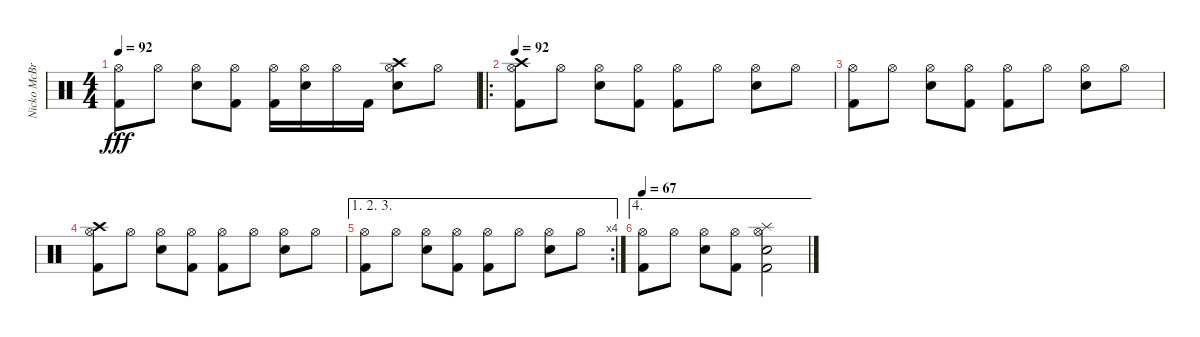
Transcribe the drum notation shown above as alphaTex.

\track ("Nicko McBrain" "Nicko McBr") {instrument percussion}
\staff {score}
\articulation defaults
\ts (4 4)
\tempo 92
\clef neutral
\ks c
("Hi-Hat (open)" "Kick (hit) 2").8{dy fff} "Hi-Hat (open)".8 ("Hi-Hat (open)" "Snare (hit) 2").8 ("Hi-Hat (open)" "Kick (hit) 2").8 ("Hi-Hat (open)" "Kick (hit) 2").16 ("Hi-Hat (open)" "Snare (hit) 2").16 "Hi-Hat (open)".16 "Kick (hit) 2".16 ("Hi-Hat (open)" "Snare (hit) 2" "Crash high (hit)").8 "Hi-Hat (open)".8 |
\ro
\tempo 92
("Hi-Hat (open)" "Kick (hit) 2" "Crash high (hit)").8 "Hi-Hat (open)".8 ("Hi-Hat (open)" "Snare (hit) 2").8 ("Hi-Hat (open)" "Kick (hit) 2").8 ("Hi-Hat (open)" "Kick (hit) 2").8 "Hi-Hat (open)".8 ("Hi-Hat (open)" "Snare (hit) 2").8 "Hi-Hat (open)".8 |
("Hi-Hat (open)" "Kick (hit) 2").8 "Hi-Hat (open)".8 ("Hi-Hat (open)" "Snare (hit) 2").8 ("Hi-Hat (open)" "Kick (hit) 2").8 ("Hi-Hat (open)" "Kick (hit) 2").8 "Hi-Hat (open)".8 ("Hi-Hat (open)" "Snare (hit) 2").8 "Hi-Hat (open)".8 |
("Hi-Hat (open)" "Kick (hit) 2" "Crash high (hit)").8 "Hi-Hat (open)".8 ("Hi-Hat (open)" "Snare (hit) 2").8 ("Hi-Hat (open)" "Kick (hit) 2").8 ("Hi-Hat (open)" "Kick (hit) 2").8 "Hi-Hat (open)".8 ("Hi-Hat (open)" "Snare (hit) 2").8 "Hi-Hat (open)".8 |
\ae (1 2 3)
\rc 4
("Hi-Hat (open)" "Kick (hit) 2").8 "Hi-Hat (open)".8 ("Hi-Hat (open)" "Snare (hit) 2").8 ("Hi-Hat (open)" "Kick (hit) 2").8 ("Hi-Hat (open)" "Kick (hit) 2").8 "Hi-Hat (open)".8 ("Hi-Hat (open)" "Snare (hit) 2").8 "Hi-Hat (open)".8 |
\ae 4
\tempo 67
("Hi-Hat (open)" "Kick (hit) 2").8 "Hi-Hat (open)".8 ("Hi-Hat (open)" "Snare (hit) 2").8 ("Hi-Hat (open)" "Kick (hit) 2").8 ("Hi-Hat (open)" "Kick (hit) 2" "Snare (hit) 2" "Splash (hit)").2
